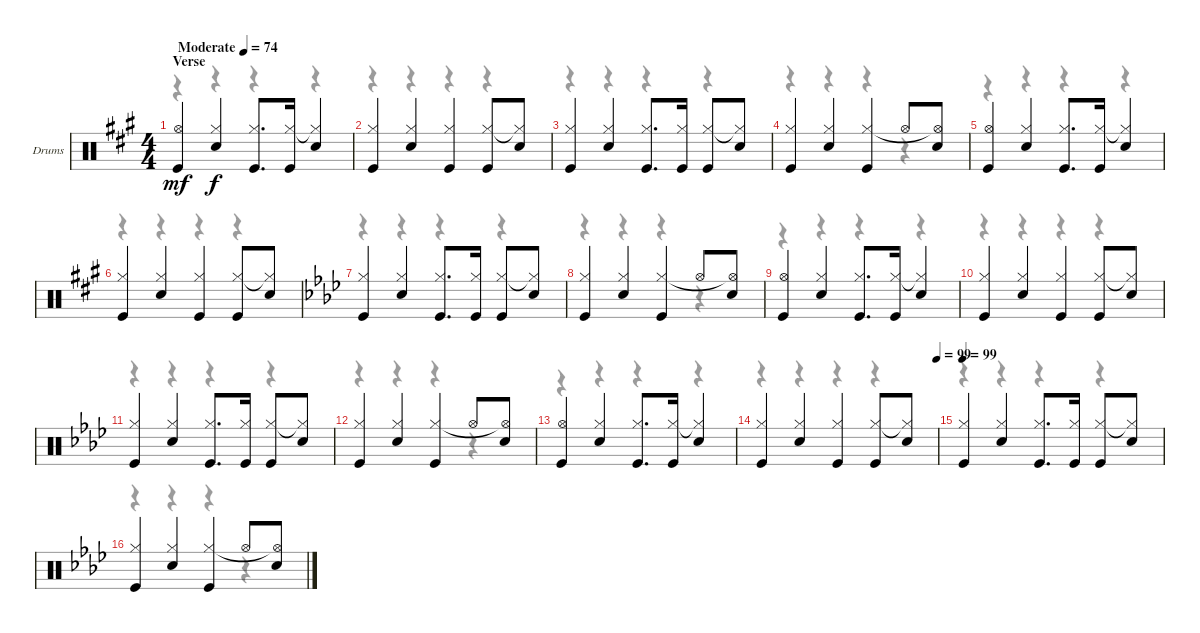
\bracketExtendMode groupsimilarinstruments
\firstSystemTrackNameOrientation horizontal
\otherSystemsTrackNameOrientation horizontal
\track ("Drumkit" "Drums") {instrument percussion}
\staff {score}
\articulation defaults
\voice
\ts (4 4)
\beaming (8 2 2 2 2)
\section ("" "Verse")
\tempo (74 "Moderate")
\clef neutral
\ks a
("Kick (hit)" "Hi-Hat (open)").4{dy mf} ("Snare (hit) 2" "Hi-Hat (closed)").4{dy f} ("Kick (hit)" "Hi-Hat (closed)").8{d} ("Kick (hit)" "Hi-Hat (closed)").16 ("Snare (hit) 2" "Hi-Hat (closed)"{t}).4 |
("Kick (hit)" "Hi-Hat (closed)").4 ("Snare (hit) 2" "Hi-Hat (closed)").4 ("Kick (hit)" "Hi-Hat (closed)").4 ("Kick (hit)" "Hi-Hat (closed)").8 ("Snare (hit) 2" "Hi-Hat (closed)"{t}).8 |
("Kick (hit)" "Hi-Hat (closed)").4 ("Snare (hit) 2" "Hi-Hat (closed)").4 ("Kick (hit)" "Hi-Hat (closed)").8{d} ("Kick (hit)" "Hi-Hat (closed)").16 ("Kick (hit)" "Hi-Hat (closed)").8 ("Snare (hit) 2" "Hi-Hat (closed)"{t}).8 |
("Kick (hit)" "Hi-Hat (closed)").4 ("Snare (hit) 2" "Hi-Hat (closed)").4 ("Kick (hit)" "Hi-Hat (closed)").4 "Hi-Hat (open)".8 ("Snare (hit) 2" "Hi-Hat (open)"{t}).8 |
("Kick (hit)" "Hi-Hat (open)").4 ("Snare (hit) 2" "Hi-Hat (closed)").4 ("Kick (hit)" "Hi-Hat (closed)").8{d} ("Kick (hit)" "Hi-Hat (closed)").16 ("Snare (hit) 2" "Hi-Hat (closed)"{t}).4 |
("Kick (hit)" "Hi-Hat (closed)").4 ("Snare (hit) 2" "Hi-Hat (closed)").4 ("Kick (hit)" "Hi-Hat (closed)").4 ("Kick (hit)" "Hi-Hat (closed)").8 ("Snare (hit) 2" "Hi-Hat (closed)"{t}).8 |
\ks ab
("Kick (hit)" "Hi-Hat (closed)").4 ("Snare (hit) 2" "Hi-Hat (closed)").4 ("Kick (hit)" "Hi-Hat (closed)").8{d} ("Kick (hit)" "Hi-Hat (closed)").16 ("Kick (hit)" "Hi-Hat (closed)").8 ("Snare (hit) 2" "Hi-Hat (closed)"{t}).8 |
("Kick (hit)" "Hi-Hat (closed)").4 ("Snare (hit) 2" "Hi-Hat (closed)").4 ("Kick (hit)" "Hi-Hat (closed)").4 "Hi-Hat (open)".8 ("Snare (hit) 2" "Hi-Hat (open)"{t}).8 |
("Kick (hit)" "Hi-Hat (open)").4 ("Snare (hit) 2" "Hi-Hat (closed)").4 ("Kick (hit)" "Hi-Hat (closed)").8{d} ("Kick (hit)" "Hi-Hat (closed)").16 ("Snare (hit) 2" "Hi-Hat (closed)"{t}).4 |
("Kick (hit)" "Hi-Hat (closed)").4 ("Snare (hit) 2" "Hi-Hat (closed)").4 ("Kick (hit)" "Hi-Hat (closed)").4 ("Kick (hit)" "Hi-Hat (closed)").8 ("Snare (hit) 2" "Hi-Hat (closed)"{t}).8 |
("Kick (hit)" "Hi-Hat (closed)").4 ("Snare (hit) 2" "Hi-Hat (closed)").4 ("Kick (hit)" "Hi-Hat (closed)").8{d} ("Kick (hit)" "Hi-Hat (closed)").16 ("Kick (hit)" "Hi-Hat (closed)").8 ("Snare (hit) 2" "Hi-Hat (closed)"{t}).8 |
("Kick (hit)" "Hi-Hat (closed)").4 ("Snare (hit) 2" "Hi-Hat (closed)").4 ("Kick (hit)" "Hi-Hat (closed)").4 "Hi-Hat (open)".8 ("Snare (hit) 2" "Hi-Hat (open)"{t}).8 |
("Kick (hit)" "Hi-Hat (open)").4 ("Snare (hit) 2" "Hi-Hat (closed)").4 ("Kick (hit)" "Hi-Hat (closed)").8{d} ("Kick (hit)" "Hi-Hat (closed)").16 ("Snare (hit) 2" "Hi-Hat (closed)"{t}).4 |
\tempo (99 1)
("Kick (hit)" "Hi-Hat (closed)").4 ("Snare (hit) 2" "Hi-Hat (closed)").4 ("Kick (hit)" "Hi-Hat (closed)").4 ("Kick (hit)" "Hi-Hat (closed)").8 ("Snare (hit) 2" "Hi-Hat (closed)"{t}).8 |
\tempo 99
("Kick (hit)" "Hi-Hat (closed)").4 ("Snare (hit) 2" "Hi-Hat (closed)").4 ("Kick (hit)" "Hi-Hat (closed)").8{d} ("Kick (hit)" "Hi-Hat (closed)").16 ("Kick (hit)" "Hi-Hat (closed)").8 ("Snare (hit) 2" "Hi-Hat (closed)"{t}).8 |
("Kick (hit)" "Hi-Hat (closed)").4 ("Snare (hit) 2" "Hi-Hat (closed)").4 ("Kick (hit)" "Hi-Hat (closed)").4 "Hi-Hat (open)".8 ("Snare (hit) 2" "Hi-Hat (open)"{t}).8
\voice
\clef neutral
\ottava regular
\simile none
\ks a
r.4{dy mf} r.4 r.4 r.4 |
r.4 r.4 r.4 r.4 |
r.4 r.4 r.4 r.4 |
r.4 r.4 r.4 r.4 |
r.4 r.4 r.4 r.4 |
r.4 r.4 r.4 r.4 |
\ks ab
r.4 r.4 r.4 r.4 |
r.4 r.4 r.4 r.4 |
r.4 r.4 r.4 r.4 |
r.4 r.4 r.4 r.4 |
r.4 r.4 r.4 r.4 |
r.4 r.4 r.4 r.4 |
r.4 r.4 r.4 r.4 |
r.4 r.4 r.4 r.4 |
r.4 r.4 r.4 r.4 |
r.4 r.4 r.4 r.4
